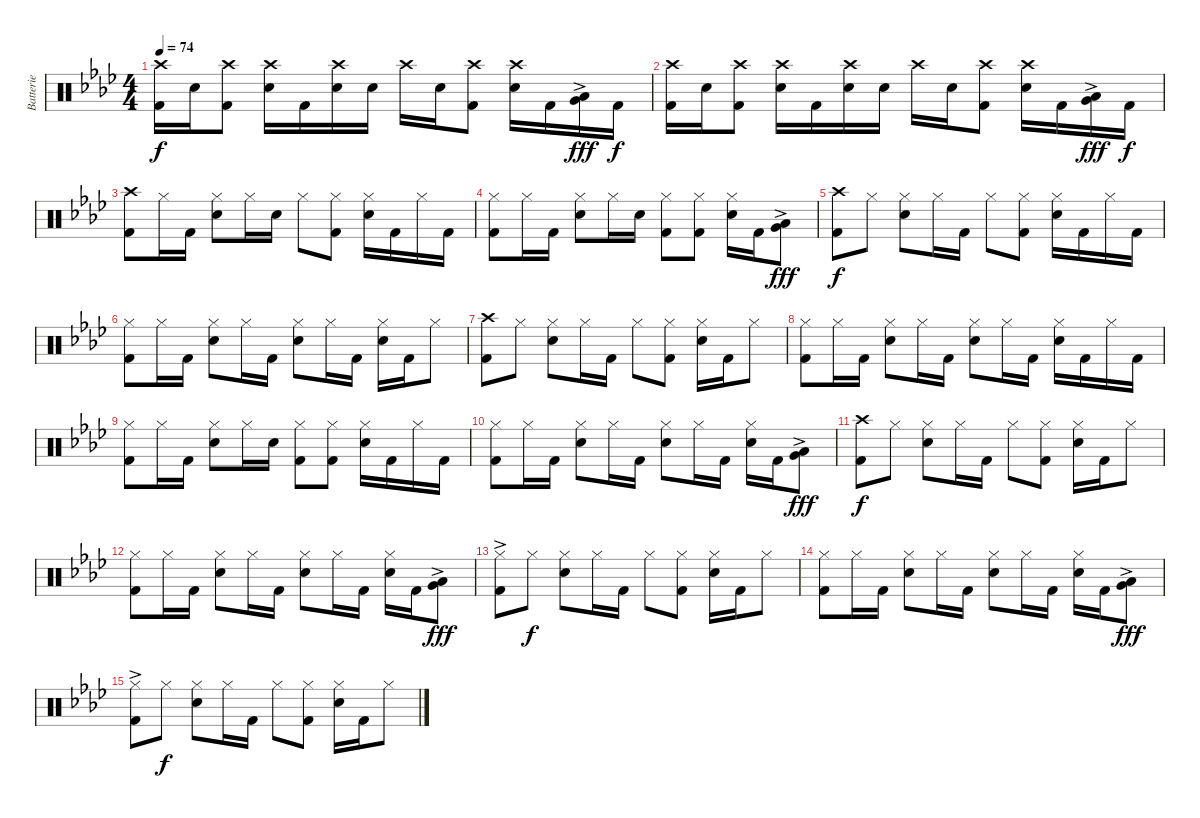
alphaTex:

\track ("Batterie" "Batterie") {instrument percussion}
\staff {score}
\articulation defaults
\ts (4 4)
\tempo 74
\clef neutral
\ks fminor
("Crash high (hit)" "Kick (hit) 2").16{dy f} "Snare (hit) 2".16 ("Crash high (hit)" "Kick (hit) 2").8 ("Crash high (hit)" "Snare (hit) 2").16 "Kick (hit) 2".16 ("Crash high (hit)" "Snare (hit) 2").16 "Snare (hit) 2".16 "Crash high (hit)".16 "Snare (hit) 2".16 ("Crash high (hit)" "Kick (hit) 2").8 ("Crash high (hit)" "Snare (hit) 2").16 "Kick (hit) 2".16 ("Low Tom (hit)" "Very Low Tom (hit)"{ac}).16{dy fff} "Kick (hit) 2".16{dy f} |
("Crash high (hit)" "Kick (hit) 2").16 "Snare (hit) 2".16 ("Crash high (hit)" "Kick (hit) 2").8 ("Crash high (hit)" "Snare (hit) 2").16 "Kick (hit) 2".16 ("Crash high (hit)" "Snare (hit) 2").16 "Snare (hit) 2".16 "Crash high (hit)".16 "Snare (hit) 2".16 ("Crash high (hit)" "Kick (hit) 2").8 ("Crash high (hit)" "Snare (hit) 2").16 "Kick (hit) 2".16 ("Low Tom (hit)" "Very Low Tom (hit)"{ac}).16{dy fff} "Kick (hit) 2".16{dy f} |
("Crash high (hit)" "Kick (hit) 2").8 "Hi-Hat (closed)".16 "Kick (hit) 2".16 ("Hi-Hat (closed)" "Snare (hit) 2").8 "Hi-Hat (closed)".16 "Snare (hit) 2".16 "Hi-Hat (closed)".8 ("Hi-Hat (closed)" "Kick (hit) 2").8 ("Hi-Hat (closed)" "Snare (hit) 2").16 "Kick (hit) 2".16 "Hi-Hat (closed)".16 "Kick (hit) 2".16 |
("Hi-Hat (closed)" "Kick (hit) 2").8 "Hi-Hat (closed)".16 "Kick (hit) 2".16 ("Hi-Hat (closed)" "Snare (hit) 2").8 "Hi-Hat (closed)".16 "Snare (hit) 2".16 ("Hi-Hat (closed)" "Kick (hit) 2").8 ("Hi-Hat (closed)" "Kick (hit) 2").8 ("Hi-Hat (closed)" "Snare (hit) 2").16 "Kick (hit) 2".16 ("Low Tom (hit)"{ac} "Very Low Tom (hit)").8{dy fff} |
("Crash high (hit)" "Kick (hit) 2").8{dy f} "Hi-Hat (closed)".8 ("Hi-Hat (closed)" "Snare (hit) 2").8 "Hi-Hat (closed)".16 "Kick (hit) 2".16 "Hi-Hat (closed)".8 ("Hi-Hat (closed)" "Kick (hit) 2").8 ("Hi-Hat (closed)" "Snare (hit) 2").16 "Kick (hit) 2".16 "Hi-Hat (closed)".16 "Kick (hit) 2".16 |
("Hi-Hat (closed)" "Kick (hit) 2").8 "Hi-Hat (closed)".16 "Kick (hit) 2".16 ("Hi-Hat (closed)" "Snare (hit) 2").8 "Hi-Hat (closed)".16 "Kick (hit) 2".16 ("Hi-Hat (closed)" "Snare (hit) 2").8 "Hi-Hat (closed)".16 "Kick (hit) 2".16 ("Hi-Hat (closed)" "Snare (hit) 2").16 "Kick (hit) 2".16 "Hi-Hat (closed)".8 |
("Crash high (hit)" "Kick (hit) 2").8 "Hi-Hat (closed)".8 ("Hi-Hat (closed)" "Snare (hit) 2").8 "Hi-Hat (closed)".16 "Kick (hit) 2".16 "Hi-Hat (closed)".8 ("Hi-Hat (closed)" "Kick (hit) 2").8 ("Hi-Hat (closed)" "Snare (hit) 2").16 "Kick (hit) 2".16 "Hi-Hat (closed)".8 |
("Hi-Hat (closed)" "Kick (hit) 2").8 "Hi-Hat (closed)".16 "Kick (hit) 2".16 ("Hi-Hat (closed)" "Snare (hit) 2").8 "Hi-Hat (closed)".16 "Kick (hit) 2".16 ("Hi-Hat (closed)" "Snare (hit) 2").8 "Hi-Hat (closed)".16 "Kick (hit) 2".16 ("Hi-Hat (closed)" "Snare (hit) 2").16 "Kick (hit) 2".16 "Hi-Hat (closed)".16 "Kick (hit) 2".16 |
("Hi-Hat (closed)" "Kick (hit) 2").8 "Hi-Hat (closed)".16 "Kick (hit) 2".16 ("Hi-Hat (closed)" "Snare (hit) 2").8 "Hi-Hat (closed)".16 "Snare (hit) 2".16 ("Hi-Hat (closed)" "Kick (hit) 2").8 ("Hi-Hat (closed)" "Kick (hit) 2").8 ("Hi-Hat (closed)" "Snare (hit) 2").16 "Kick (hit) 2".16 "Hi-Hat (closed)".16 "Kick (hit) 2".16 |
("Hi-Hat (closed)" "Kick (hit) 2").8 "Hi-Hat (closed)".16 "Kick (hit) 2".16 ("Hi-Hat (closed)" "Snare (hit) 2").8 "Hi-Hat (closed)".16 "Kick (hit) 2".16 ("Hi-Hat (closed)" "Snare (hit) 2").8 "Hi-Hat (closed)".16 "Kick (hit) 2".16 ("Hi-Hat (closed)" "Snare (hit) 2").16 "Kick (hit) 2".16 ("Low Tom (hit)"{ac} "Very Low Tom (hit)").8{dy fff} |
("Crash high (hit)" "Kick (hit) 2").8{dy f} "Hi-Hat (closed)".8 ("Hi-Hat (closed)" "Snare (hit) 2").8 "Hi-Hat (closed)".16 "Kick (hit) 2".16 "Hi-Hat (closed)".8 ("Hi-Hat (closed)" "Kick (hit) 2").8 ("Hi-Hat (closed)" "Snare (hit) 2").16 "Kick (hit) 2".16 "Hi-Hat (closed)".8 |
("Hi-Hat (closed)" "Kick (hit) 2").8{volume 0} "Hi-Hat (closed)".16 "Kick (hit) 2".16 ("Hi-Hat (closed)" "Snare (hit) 2").8 "Hi-Hat (closed)".16 "Kick (hit) 2".16 ("Hi-Hat (closed)" "Snare (hit) 2").8 "Hi-Hat (closed)".16 "Kick (hit) 2".16 ("Hi-Hat (closed)" "Snare (hit) 2").16 "Kick (hit) 2".16 ("Low Tom (hit)"{ac} "Very Low Tom (hit)").8{dy fff} |
("Hi-Hat (closed)"{ac} "Kick (hit) 2").8 "Hi-Hat (closed)".8{dy f} ("Hi-Hat (closed)" "Snare (hit) 2").8 "Hi-Hat (closed)".16 "Kick (hit) 2".16 "Hi-Hat (closed)".8 ("Hi-Hat (closed)" "Kick (hit) 2").8 ("Hi-Hat (closed)" "Snare (hit) 2").16 "Kick (hit) 2".16 "Hi-Hat (closed)".8 |
("Hi-Hat (closed)" "Kick (hit) 2").8 "Hi-Hat (closed)".16 "Kick (hit) 2".16 ("Hi-Hat (closed)" "Snare (hit) 2").8 "Hi-Hat (closed)".16 "Kick (hit) 2".16 ("Hi-Hat (closed)" "Snare (hit) 2").8 "Hi-Hat (closed)".16 "Kick (hit) 2".16 ("Hi-Hat (closed)" "Snare (hit) 2").16 "Kick (hit) 2".16 ("Low Tom (hit)"{ac} "Very Low Tom (hit)").8{dy fff} |
("Hi-Hat (closed)"{ac} "Kick (hit) 2").8 "Hi-Hat (closed)".8{dy f} ("Hi-Hat (closed)" "Snare (hit) 2").8 "Hi-Hat (closed)".16 "Kick (hit) 2".16 "Hi-Hat (closed)".8 ("Hi-Hat (closed)" "Kick (hit) 2").8 ("Hi-Hat (closed)" "Snare (hit) 2").16 "Kick (hit) 2".16 "Hi-Hat (closed)".8
